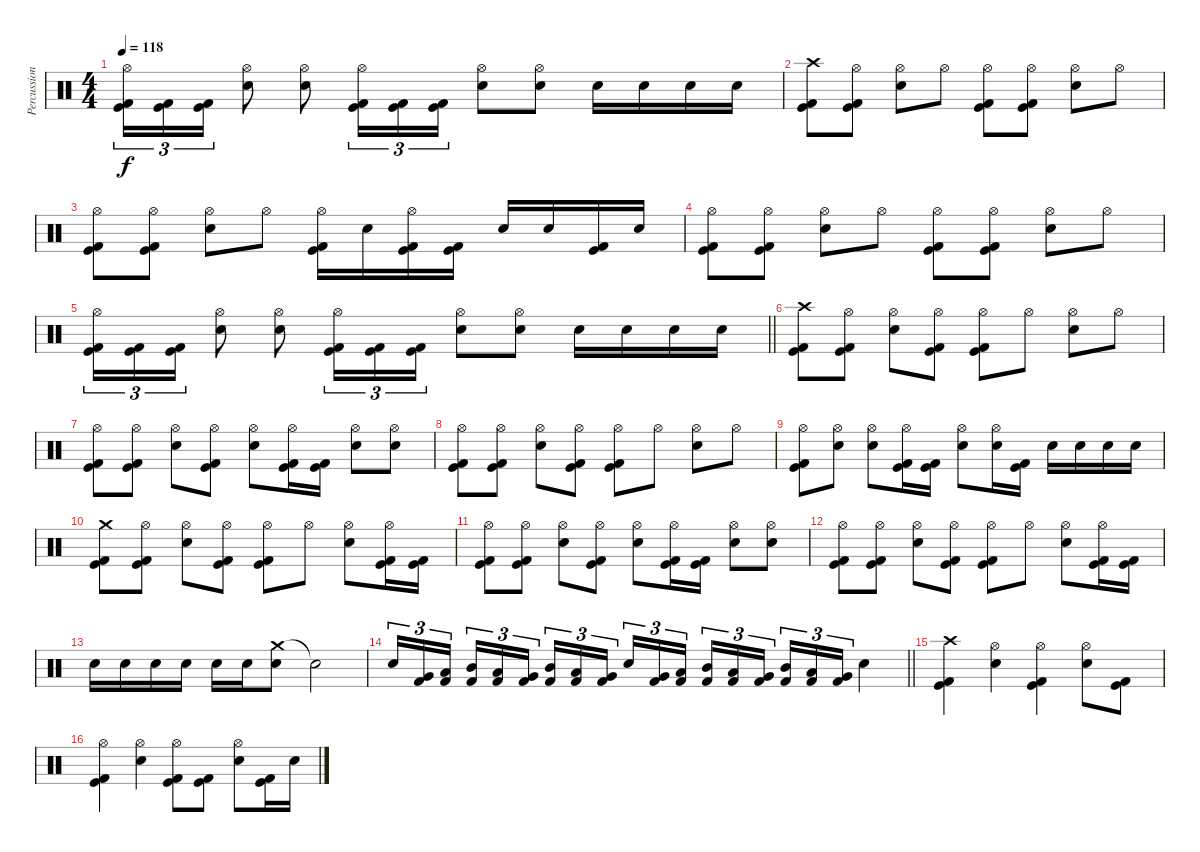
\track ("Percussion" "Percussion") {instrument percussion}
\staff {score}
\articulation defaults
\ts (4 4)
\tempo 118
\clef neutral
\ks c
("Hi-Hat (open)" "Kick (hit)" "Kick (hit) 2").16{tu (3 2) dy f} ("Kick (hit)" "Kick (hit) 2").16{tu (3 2)} ("Kick (hit)" "Kick (hit) 2").16{tu (3 2)} ("Hi-Hat (open)" "Electric Snare (hit)").8 ("Hi-Hat (open)" "Electric Snare (hit)").8 ("Hi-Hat (open)" "Kick (hit)" "Kick (hit) 2").16{tu (3 2)} ("Kick (hit)" "Kick (hit) 2").16{tu (3 2)} ("Kick (hit)" "Kick (hit) 2").16{tu (3 2)} ("Hi-Hat (open)" "Electric Snare (hit)").8 ("Hi-Hat (open)" "Electric Snare (hit)").8 "Electric Snare (hit)".16 "Electric Snare (hit)".16 "Electric Snare (hit)".16 "Electric Snare (hit)".16 |
("Crash high (hit)" "Kick (hit)" "Kick (hit) 2").8 ("Hi-Hat (open)" "Kick (hit)" "Kick (hit) 2").8 ("Hi-Hat (open)" "Electric Snare (hit)").8 "Hi-Hat (open)".8 ("Hi-Hat (open)" "Kick (hit)" "Kick (hit) 2").8 ("Hi-Hat (open)" "Kick (hit)" "Kick (hit) 2").8 ("Hi-Hat (open)" "Electric Snare (hit)").8 "Hi-Hat (open)".8 |
("Hi-Hat (open)" "Kick (hit)" "Kick (hit) 2").8 ("Hi-Hat (open)" "Kick (hit)" "Kick (hit) 2").8 ("Hi-Hat (open)" "Electric Snare (hit)").8 "Hi-Hat (open)".8 ("Hi-Hat (open)" "Kick (hit)" "Kick (hit) 2").16 "Electric Snare (hit)".16 ("Hi-Hat (open)" "Kick (hit)" "Kick (hit) 2").16 ("Kick (hit)" "Kick (hit) 2").16 "Electric Snare (hit)".16 "Electric Snare (hit)".16 ("Kick (hit)" "Kick (hit) 2").16 "Electric Snare (hit)".16 |
("Hi-Hat (open)" "Kick (hit)" "Kick (hit) 2").8 ("Hi-Hat (open)" "Kick (hit)" "Kick (hit) 2").8 ("Hi-Hat (open)" "Electric Snare (hit)").8 "Hi-Hat (open)".8 ("Hi-Hat (open)" "Kick (hit)" "Kick (hit) 2").8 ("Hi-Hat (open)" "Kick (hit)" "Kick (hit) 2").8 ("Hi-Hat (open)" "Electric Snare (hit)").8 "Hi-Hat (open)".8 |
\barLineRight lightlight
("Hi-Hat (open)" "Kick (hit)" "Kick (hit) 2").16{tu (3 2)} ("Kick (hit)" "Kick (hit) 2").16{tu (3 2)} ("Kick (hit)" "Kick (hit) 2").16{tu (3 2)} ("Hi-Hat (open)" "Electric Snare (hit)").8 ("Hi-Hat (open)" "Electric Snare (hit)").8 ("Hi-Hat (open)" "Kick (hit)" "Kick (hit) 2").16{tu (3 2)} ("Kick (hit)" "Kick (hit) 2").16{tu (3 2)} ("Kick (hit)" "Kick (hit) 2").16{tu (3 2)} ("Hi-Hat (open)" "Electric Snare (hit)").8 ("Hi-Hat (open)" "Electric Snare (hit)").8 "Electric Snare (hit)".16 "Electric Snare (hit)".16 "Electric Snare (hit)".16 "Electric Snare (hit)".16 |
\section ("" "")
("Crash high (hit)" "Kick (hit)" "Kick (hit) 2").8 ("Hi-Hat (open)" "Kick (hit)" "Kick (hit) 2").8 ("Hi-Hat (open)" "Electric Snare (hit)").8 ("Hi-Hat (open)" "Kick (hit)" "Kick (hit) 2").8 ("Hi-Hat (open)" "Kick (hit)" "Kick (hit) 2").8 "Hi-Hat (open)".8 ("Hi-Hat (open)" "Electric Snare (hit)").8 "Hi-Hat (open)".8 |
("Hi-Hat (open)" "Kick (hit)" "Kick (hit) 2").8 ("Hi-Hat (open)" "Kick (hit)" "Kick (hit) 2").8 ("Hi-Hat (open)" "Electric Snare (hit)").8 ("Hi-Hat (open)" "Kick (hit)" "Kick (hit) 2").8 ("Hi-Hat (open)" "Electric Snare (hit)").8 ("Hi-Hat (open)" "Kick (hit)" "Kick (hit) 2").16 ("Kick (hit)" "Kick (hit) 2").16 ("Hi-Hat (open)" "Electric Snare (hit)").8 ("Hi-Hat (open)" "Electric Snare (hit)").8 |
("Hi-Hat (open)" "Kick (hit)" "Kick (hit) 2").8 ("Hi-Hat (open)" "Kick (hit)" "Kick (hit) 2").8 ("Hi-Hat (open)" "Electric Snare (hit)").8 ("Hi-Hat (open)" "Kick (hit)" "Kick (hit) 2").8 ("Hi-Hat (open)" "Kick (hit)" "Kick (hit) 2").8 "Hi-Hat (open)".8 ("Hi-Hat (open)" "Electric Snare (hit)").8 "Hi-Hat (open)".8 |
("Hi-Hat (open)" "Kick (hit)" "Kick (hit) 2").8 ("Hi-Hat (open)" "Electric Snare (hit)").8 ("Hi-Hat (open)" "Electric Snare (hit)").8 ("Hi-Hat (open)" "Kick (hit)" "Kick (hit) 2").16 ("Kick (hit)" "Kick (hit) 2").16 ("Hi-Hat (open)" "Electric Snare (hit)").8 ("Hi-Hat (open)" "Electric Snare (hit)").16 ("Kick (hit)" "Kick (hit) 2").16 "Electric Snare (hit)".16 "Electric Snare (hit)".16 "Electric Snare (hit)".16 "Electric Snare (hit)".16 |
("Crash medium (hit)" "Kick (hit)" "Kick (hit) 2").8 ("Hi-Hat (open)" "Kick (hit)" "Kick (hit) 2").8 ("Hi-Hat (open)" "Electric Snare (hit)").8 ("Hi-Hat (open)" "Kick (hit)" "Kick (hit) 2").8 ("Hi-Hat (open)" "Kick (hit)" "Kick (hit) 2").8 "Hi-Hat (open)".8 ("Hi-Hat (open)" "Electric Snare (hit)").8 ("Hi-Hat (open)" "Kick (hit)" "Kick (hit) 2").16 ("Kick (hit)" "Kick (hit) 2").16 |
("Hi-Hat (open)" "Kick (hit)" "Kick (hit) 2").8 ("Hi-Hat (open)" "Kick (hit)" "Kick (hit) 2").8 ("Hi-Hat (open)" "Electric Snare (hit)").8 ("Hi-Hat (open)" "Kick (hit)" "Kick (hit) 2").8 ("Hi-Hat (open)" "Electric Snare (hit)").8 ("Hi-Hat (open)" "Kick (hit)" "Kick (hit) 2").16 ("Kick (hit)" "Kick (hit) 2").16 ("Hi-Hat (open)" "Electric Snare (hit)").8 ("Hi-Hat (open)" "Electric Snare (hit)").8 |
("Hi-Hat (open)" "Kick (hit)" "Kick (hit) 2").8 ("Hi-Hat (open)" "Kick (hit)" "Kick (hit) 2").8 ("Hi-Hat (open)" "Electric Snare (hit)").8 ("Hi-Hat (open)" "Kick (hit)" "Kick (hit) 2").8 ("Hi-Hat (open)" "Kick (hit)" "Kick (hit) 2").8 "Hi-Hat (open)".8 ("Hi-Hat (open)" "Electric Snare (hit)").8 ("Hi-Hat (open)" "Kick (hit)" "Kick (hit) 2").16 ("Kick (hit)" "Kick (hit) 2").16 |
"Electric Snare (hit)".16 "Electric Snare (hit)".16 "Electric Snare (hit)".16 "Electric Snare (hit)".16 "Electric Snare (hit)".16 "Electric Snare (hit)".16 ("Crash medium (hit)" "Electric Snare (hit)").8 "Snare (hit)"{t}.2 |
\barLineRight lightlight "Electric Snare (hit)".16{tu (3 2)}
("Very Low Tom (hit)" "Kick (hit) 2").16{tu (3 2)} ("Low Floor Tom (hit)" "Kick (hit) 2").16{tu (3 2) beam splitsecondary} ("Mid Tom (hit)" "Kick (hit) 2").16{tu (3 2)} ("Low Tom (hit)" "Kick (hit) 2").16{tu (3 2)} ("Very Low Tom (hit)" "Kick (hit) 2").16{tu (3 2)} ("Mid Tom (hit)" "Kick (hit) 2").16{tu (3 2)} ("Low Tom (hit)" "Kick (hit) 2").16{tu (3 2)} ("Very Low Tom (hit)" "Kick (hit) 2").16{tu (3 2) beam splitsecondary} "Electric Snare (hit)".16{tu (3 2)} ("Very Low Tom (hit)" "Kick (hit) 2").16{tu (3 2)} ("Low Floor Tom (hit)" "Kick (hit) 2").16{tu (3 2)} ("Mid Tom (hit)" "Kick (hit) 2").16{tu (3 2)} ("Low Tom (hit)" "Kick (hit) 2").16{tu (3 2)} ("Very Low Tom (hit)" "Kick (hit) 2").16{tu (3 2) beam splitsecondary} ("Mid Tom (hit)" "Kick (hit) 2").16{tu (3 2)} ("Low Tom (hit)" "Kick (hit) 2").16{tu (3 2)} ("Very Low Tom (hit)" "Kick (hit) 2").16{tu (3 2)} "Electric Snare (hit)".4 |
\section ("" "")
("Crash high (hit)" "Kick (hit)" "Kick (hit) 2").4 ("Hi-Hat (open)" "Electric Snare (hit)").4 ("Hi-Hat (open)" "Kick (hit)" "Kick (hit) 2").4 ("Hi-Hat (open)" "Electric Snare (hit)").8 ("Kick (hit)" "Kick (hit) 2").8 |
("Hi-Hat (open)" "Kick (hit)" "Kick (hit) 2").4 ("Hi-Hat (open)" "Electric Snare (hit)").4 ("Hi-Hat (open)" "Kick (hit)" "Kick (hit) 2").8 ("Kick (hit)" "Kick (hit) 2").8 ("Hi-Hat (open)" "Electric Snare (hit)").8 ("Kick (hit)" "Kick (hit) 2").16 "Electric Snare (hit)".16
